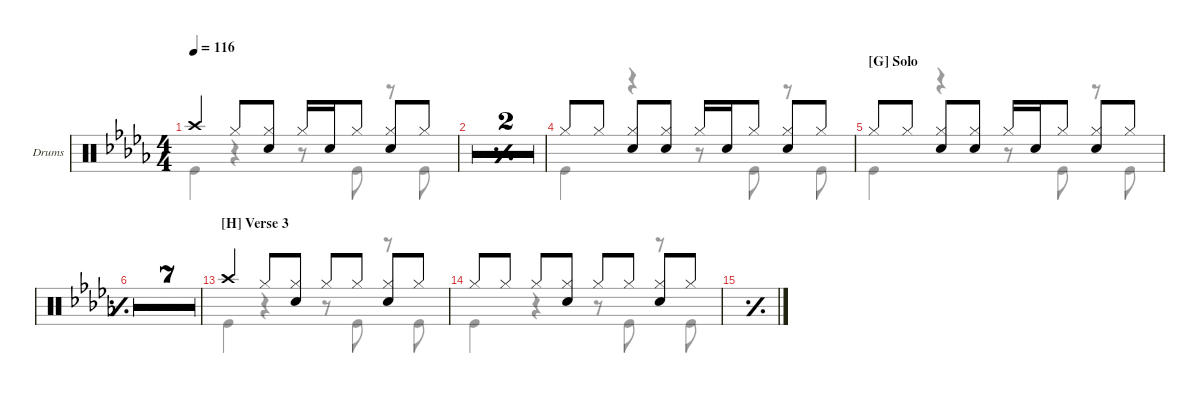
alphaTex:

\hideDynamics
\bracketExtendMode nobrackets
\firstSystemTrackNameOrientation horizontal
\otherSystemsTrackNameOrientation horizontal
\track ("Drums" "Drums") {multiBarRest instrument percussion}
\staff {score}
\articulation defaults
\voice
\ts (4 4)
\tempo 116
\clef neutral
\ks db "Crash high (hit)".4{dy mf} "Hi-Hat (closed)".8
("Hi-Hat (closed)" "Snare (hit) 2").8 "Hi-Hat (closed)".16 "Snare (hit) 2".16 "Hi-Hat (closed)".8 ("Hi-Hat (closed)" "Snare (hit) 2").8 "Hi-Hat (closed)".8 |
\simile simple
|
|
\simile none "Hi-Hat (closed)".8 "Hi-Hat (closed)".8
("Hi-Hat (closed)" "Snare (hit) 2").8 ("Hi-Hat (closed)" "Snare (hit) 2").8 "Hi-Hat (closed)".16 "Snare (hit) 2".16 "Hi-Hat (closed)".8 ("Hi-Hat (closed)" "Snare (hit) 2").8 "Hi-Hat (closed)".8 |
\section ("G" "Solo")
"Hi-Hat (closed)".8 "Hi-Hat (closed)".8 ("Hi-Hat (closed)" "Snare (hit) 2").8 ("Hi-Hat (closed)" "Snare (hit) 2").8 "Hi-Hat (closed)".16 "Snare (hit) 2".16 "Hi-Hat (closed)".8 ("Hi-Hat (closed)" "Snare (hit) 2").8 "Hi-Hat (closed)".8 |
\simile simple
|
\simile firstofdouble
|
\simile secondofdouble
|
\simile firstofdouble
|
\simile secondofdouble
|
\simile firstofdouble
|
\simile secondofdouble
|
\section ("H" "Verse 3")
\simile none "Crash high (hit)".4 "Hi-Hat (closed)".8
("Hi-Hat (closed)" "Snare (hit) 2").8 "Hi-Hat (closed)".8 "Hi-Hat (closed)".8 ("Hi-Hat (closed)" "Snare (hit) 2").8 "Hi-Hat (closed)".8 |
"Hi-Hat (closed)".8 "Hi-Hat (closed)".8 "Hi-Hat (closed)".8 ("Hi-Hat (closed)" "Snare (hit) 2").8 "Hi-Hat (closed)".8 "Hi-Hat (closed)".8 ("Hi-Hat (closed)" "Snare (hit) 2").8 "Hi-Hat (closed)".8 |
\simile simple
|
\voice
\clef neutral
\ottava regular
\simile none
\ks db "Kick (hit)".4{dy mf}
r.4 r.8 "Kick (hit)".8 r.8 "Kick (hit)".8 |
\simile simple
|
|
\simile none "Kick (hit)".4
r.4 r.8 "Kick (hit)".8 r.8 "Kick (hit)".8 |
"Kick (hit)".4 r.4 r.8 "Kick (hit)".8 r.8 "Kick (hit)".8 |
\simile simple
|
\simile firstofdouble
|
\simile secondofdouble
|
\simile firstofdouble
|
\simile secondofdouble
|
\simile firstofdouble
|
\simile secondofdouble
|
\simile none "Kick (hit)".4
r.4 r.8 "Kick (hit)".8 r.8 "Kick (hit)".8 |
"Kick (hit)".4 r.4 r.8 "Kick (hit)".8 r.8 "Kick (hit)".8 |
\simile simple
|
